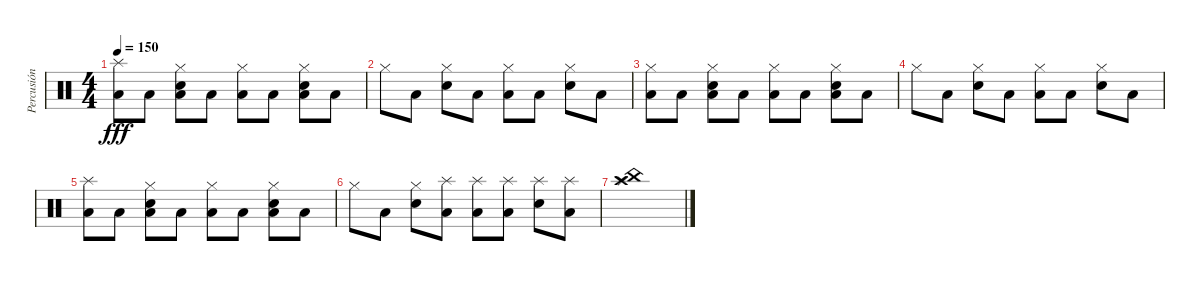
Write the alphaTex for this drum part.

\track ("Percusión" "Percusión") {instrument percussion}
\staff {score}
\articulation defaults
\ts (4 4)
\tempo 150
\clef neutral
\ks c
("Splash (hit)" "Low Tom (hit)").8{dy fff} "Low Tom (hit)".8 ("Low Tom (hit)" "Hi-Hat (closed)" "Snare (hit) 2").8 "Low Tom (hit)".8 ("Hi-Hat (closed)" "Low Tom (hit)").8 "Low Tom (hit)".8 ("Low Tom (hit)" "Hi-Hat (closed)" "Snare (hit) 2").8 "Low Tom (hit)".8 |
"Hi-Hat (closed)".8 "Low Tom (hit)".8 ("Hi-Hat (closed)" "Snare (hit) 2").8 "Low Tom (hit)".8 ("Hi-Hat (closed)" "Low Tom (hit)").8 "Low Tom (hit)".8 ("Hi-Hat (closed)" "Snare (hit) 2").8 "Low Tom (hit)".8 |
("Hi-Hat (closed)" "Low Tom (hit)").8 "Low Tom (hit)".8 ("Low Tom (hit)" "Hi-Hat (closed)" "Snare (hit) 2").8 "Low Tom (hit)".8 ("Hi-Hat (closed)" "Low Tom (hit)").8 "Low Tom (hit)".8 ("Low Tom (hit)" "Hi-Hat (closed)" "Snare (hit) 2").8 "Low Tom (hit)".8 |
"Hi-Hat (closed)".8 "Low Tom (hit)".8 ("Hi-Hat (closed)" "Snare (hit) 2").8 "Low Tom (hit)".8 ("Hi-Hat (closed)" "Low Tom (hit)").8 "Low Tom (hit)".8 ("Hi-Hat (closed)" "Snare (hit) 2").8 "Low Tom (hit)".8 |
("Splash (hit)" "Low Tom (hit)").8 "Low Tom (hit)".8 ("Low Tom (hit)" "Hi-Hat (closed)" "Snare (hit) 2").8 "Low Tom (hit)".8 ("Hi-Hat (closed)" "Low Tom (hit)").8 "Low Tom (hit)".8 ("Low Tom (hit)" "Hi-Hat (closed)" "Snare (hit) 2").8 "Low Tom (hit)".8 |
"Hi-Hat (closed)".8 "Low Tom (hit)".8 ("Hi-Hat (closed)" "Snare (hit) 2").8 ("Splash (hit)" "Low Tom (hit)").8 ("Splash (hit)" "Low Tom (hit)").8 ("Splash (hit)" "Low Tom (hit)").8 ("Splash (hit)" "Snare (hit) 2").8 ("Splash (hit)" "Low Tom (hit)").8 |
("China (hit)" "Splash (hit)" "Crash high (hit)").1
